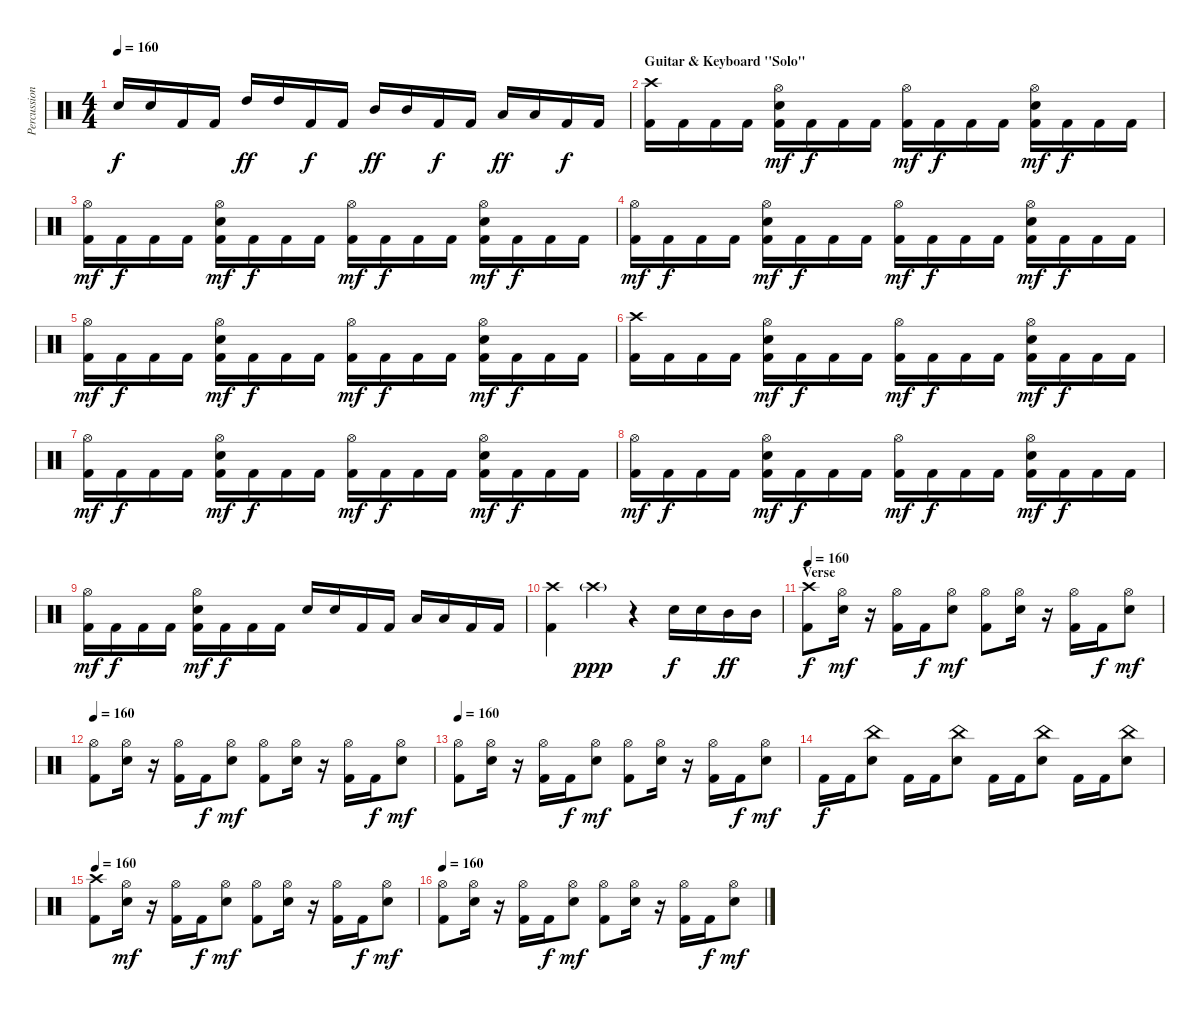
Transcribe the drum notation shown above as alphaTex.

\track ("Percussion" "Percussion") {instrument percussion}
\staff {score}
\articulation defaults
\ts (4 4)
\tempo 160
\clef neutral
\ks c "Electric Snare (hit)".16{dy f} "Electric Snare (hit)".16 "Kick (hit) 2".16 "Kick (hit) 2".16 "High Tom (hit)".16{dy ff} "High Tom (hit)".16 "Kick (hit) 2".16{dy f} "Kick (hit) 2".16 "Mid Tom (hit)".16{dy ff} "Mid Tom (hit)".16 "Kick (hit) 2".16{dy f} "Kick (hit) 2".16 "Low Tom (hit)".16{dy ff} "Low Tom (hit)".16 "Kick (hit) 2".16{dy f} "Kick (hit) 2".16
|
\section ("" "Guitar & Keyboard ''Solo''")
("Crash high (hit)" "Kick (hit) 2").16 "Kick (hit) 2".16 "Kick (hit) 2".16 "Kick (hit) 2".16 ("Hi-Hat (open)" "Electric Snare (hit)" "Kick (hit) 2").16{dy mf} "Kick (hit) 2".16{dy f} "Kick (hit) 2".16 "Kick (hit) 2".16 ("Hi-Hat (open)" "Kick (hit) 2").16{dy mf} "Kick (hit) 2".16{dy f} "Kick (hit) 2".16 "Kick (hit) 2".16 ("Hi-Hat (open)" "Electric Snare (hit)" "Kick (hit) 2").16{dy mf} "Kick (hit) 2".16{dy f} "Kick (hit) 2".16 "Kick (hit) 2".16 |
("Hi-Hat (open)" "Kick (hit) 2").16{dy mf} "Kick (hit) 2".16{dy f} "Kick (hit) 2".16 "Kick (hit) 2".16 ("Hi-Hat (open)" "Electric Snare (hit)" "Kick (hit) 2").16{dy mf} "Kick (hit) 2".16{dy f} "Kick (hit) 2".16 "Kick (hit) 2".16 ("Hi-Hat (open)" "Kick (hit) 2").16{dy mf} "Kick (hit) 2".16{dy f} "Kick (hit) 2".16 "Kick (hit) 2".16 ("Hi-Hat (open)" "Electric Snare (hit)" "Kick (hit) 2").16{dy mf} "Kick (hit) 2".16{dy f} "Kick (hit) 2".16 "Kick (hit) 2".16 |
("Hi-Hat (open)" "Kick (hit) 2").16{dy mf} "Kick (hit) 2".16{dy f} "Kick (hit) 2".16 "Kick (hit) 2".16 ("Hi-Hat (open)" "Electric Snare (hit)" "Kick (hit) 2").16{dy mf} "Kick (hit) 2".16{dy f} "Kick (hit) 2".16 "Kick (hit) 2".16 ("Hi-Hat (open)" "Kick (hit) 2").16{dy mf} "Kick (hit) 2".16{dy f} "Kick (hit) 2".16 "Kick (hit) 2".16 ("Hi-Hat (open)" "Electric Snare (hit)" "Kick (hit) 2").16{dy mf} "Kick (hit) 2".16{dy f} "Kick (hit) 2".16 "Kick (hit) 2".16 |
("Hi-Hat (open)" "Kick (hit) 2").16{dy mf} "Kick (hit) 2".16{dy f} "Kick (hit) 2".16 "Kick (hit) 2".16 ("Hi-Hat (open)" "Electric Snare (hit)" "Kick (hit) 2").16{dy mf} "Kick (hit) 2".16{dy f} "Kick (hit) 2".16 "Kick (hit) 2".16 ("Hi-Hat (open)" "Kick (hit) 2").16{dy mf} "Kick (hit) 2".16{dy f} "Kick (hit) 2".16 "Kick (hit) 2".16 ("Hi-Hat (open)" "Electric Snare (hit)" "Kick (hit) 2").16{dy mf} "Kick (hit) 2".16{dy f} "Kick (hit) 2".16 "Kick (hit) 2".16 |
("Crash high (hit)" "Kick (hit) 2").16 "Kick (hit) 2".16 "Kick (hit) 2".16 "Kick (hit) 2".16 ("Hi-Hat (open)" "Electric Snare (hit)" "Kick (hit) 2").16{dy mf} "Kick (hit) 2".16{dy f} "Kick (hit) 2".16 "Kick (hit) 2".16 ("Hi-Hat (open)" "Kick (hit) 2").16{dy mf} "Kick (hit) 2".16{dy f} "Kick (hit) 2".16 "Kick (hit) 2".16 ("Hi-Hat (open)" "Electric Snare (hit)" "Kick (hit) 2").16{dy mf} "Kick (hit) 2".16{dy f} "Kick (hit) 2".16 "Kick (hit) 2".16 |
("Hi-Hat (open)" "Kick (hit) 2").16{dy mf} "Kick (hit) 2".16{dy f} "Kick (hit) 2".16 "Kick (hit) 2".16 ("Hi-Hat (open)" "Electric Snare (hit)" "Kick (hit) 2").16{dy mf} "Kick (hit) 2".16{dy f} "Kick (hit) 2".16 "Kick (hit) 2".16 ("Hi-Hat (open)" "Kick (hit) 2").16{dy mf} "Kick (hit) 2".16{dy f} "Kick (hit) 2".16 "Kick (hit) 2".16 ("Hi-Hat (open)" "Electric Snare (hit)" "Kick (hit) 2").16{dy mf} "Kick (hit) 2".16{dy f} "Kick (hit) 2".16 "Kick (hit) 2".16 |
("Hi-Hat (open)" "Kick (hit) 2").16{dy mf} "Kick (hit) 2".16{dy f} "Kick (hit) 2".16 "Kick (hit) 2".16 ("Hi-Hat (open)" "Electric Snare (hit)" "Kick (hit) 2").16{dy mf} "Kick (hit) 2".16{dy f} "Kick (hit) 2".16 "Kick (hit) 2".16 ("Hi-Hat (open)" "Kick (hit) 2").16{dy mf} "Kick (hit) 2".16{dy f} "Kick (hit) 2".16 "Kick (hit) 2".16 ("Hi-Hat (open)" "Electric Snare (hit)" "Kick (hit) 2").16{dy mf} "Kick (hit) 2".16{dy f} "Kick (hit) 2".16 "Kick (hit) 2".16 |
("Hi-Hat (open)" "Kick (hit) 2").16{dy mf} "Kick (hit) 2".16{dy f} "Kick (hit) 2".16 "Kick (hit) 2".16 ("Hi-Hat (open)" "Electric Snare (hit)" "Kick (hit) 2").16{dy mf} "Kick (hit) 2".16{dy f} "Kick (hit) 2".16 "Kick (hit) 2".16 "Electric Snare (hit)".16 "Electric Snare (hit)".16 "Kick (hit) 2".16 "Kick (hit) 2".16 "Low Tom (hit)".16 "Low Tom (hit)".16 "Kick (hit) 2".16 "Kick (hit) 2".16 |
("Crash high (hit)" "Kick (hit) 2").4 "Crash high (hit)"{g}.4{dy ppp} r.4 "Electric Snare (hit)".16{dy f} "Electric Snare (hit)".16 "Mid Tom (hit)".16{dy ff} "Mid Tom (hit)".16 |
\section ("" "Verse")
\tempo 160
("Crash high (hit)" "Kick (hit) 2").8{dy f} ("Hi-Hat (open)" "Electric Snare (hit)").16{dy mf} r.16 ("Hi-Hat (open)" "Kick (hit) 2").16 "Kick (hit) 2".16{dy f} ("Hi-Hat (open)" "Electric Snare (hit)").8{dy mf} ("Hi-Hat (open)" "Kick (hit) 2").8 ("Hi-Hat (open)" "Electric Snare (hit)").16 r.16 ("Hi-Hat (open)" "Kick (hit) 2").16 "Kick (hit) 2".16{dy f} ("Hi-Hat (open)" "Electric Snare (hit)").8{dy mf} |
\tempo 160
("Hi-Hat (open)" "Kick (hit) 2").8 ("Hi-Hat (open)" "Electric Snare (hit)").16 r.16 ("Hi-Hat (open)" "Kick (hit) 2").16 "Kick (hit) 2".16{dy f} ("Hi-Hat (open)" "Electric Snare (hit)").8{dy mf} ("Hi-Hat (open)" "Kick (hit) 2").8 ("Hi-Hat (open)" "Electric Snare (hit)").16 r.16 ("Hi-Hat (open)" "Kick (hit) 2").16 "Kick (hit) 2".16{dy f} ("Hi-Hat (open)" "Electric Snare (hit)").8{dy mf} |
\tempo 160
("Hi-Hat (open)" "Kick (hit) 2").8 ("Hi-Hat (open)" "Electric Snare (hit)").16 r.16 ("Hi-Hat (open)" "Kick (hit) 2").16 "Kick (hit) 2".16{dy f} ("Hi-Hat (open)" "Electric Snare (hit)").8{dy mf} ("Hi-Hat (open)" "Kick (hit) 2").8 ("Hi-Hat (open)" "Electric Snare (hit)").16 r.16 ("Hi-Hat (open)" "Kick (hit) 2").16 "Kick (hit) 2".16{dy f} ("Hi-Hat (open)" "Electric Snare (hit)").8{dy mf} |
"Kick (hit) 2".16{dy f} "Kick (hit) 2".16 ("China (hit)" "Electric Snare (hit)").8 "Kick (hit) 2".16 "Kick (hit) 2".16 ("China (hit)" "Electric Snare (hit)").8 "Kick (hit) 2".16 "Kick (hit) 2".16 ("China (hit)" "Electric Snare (hit)").8 "Kick (hit) 2".16 "Kick (hit) 2".16 ("China (hit)" "Electric Snare (hit)").8 |
\tempo 160
("Crash high (hit)" "Kick (hit) 2").8 ("Hi-Hat (open)" "Electric Snare (hit)").16{dy mf} r.16 ("Hi-Hat (open)" "Kick (hit) 2").16 "Kick (hit) 2".16{dy f} ("Hi-Hat (open)" "Electric Snare (hit)").8{dy mf} ("Hi-Hat (open)" "Kick (hit) 2").8 ("Hi-Hat (open)" "Electric Snare (hit)").16 r.16 ("Hi-Hat (open)" "Kick (hit) 2").16 "Kick (hit) 2".16{dy f} ("Hi-Hat (open)" "Electric Snare (hit)").8{dy mf} |
\tempo 160
("Hi-Hat (open)" "Kick (hit) 2").8 ("Hi-Hat (open)" "Electric Snare (hit)").16 r.16 ("Hi-Hat (open)" "Kick (hit) 2").16 "Kick (hit) 2".16{dy f} ("Hi-Hat (open)" "Electric Snare (hit)").8{dy mf} ("Hi-Hat (open)" "Kick (hit) 2").8 ("Hi-Hat (open)" "Electric Snare (hit)").16 r.16 ("Hi-Hat (open)" "Kick (hit) 2").16 "Kick (hit) 2".16{dy f} ("Hi-Hat (open)" "Electric Snare (hit)").8{dy mf}
